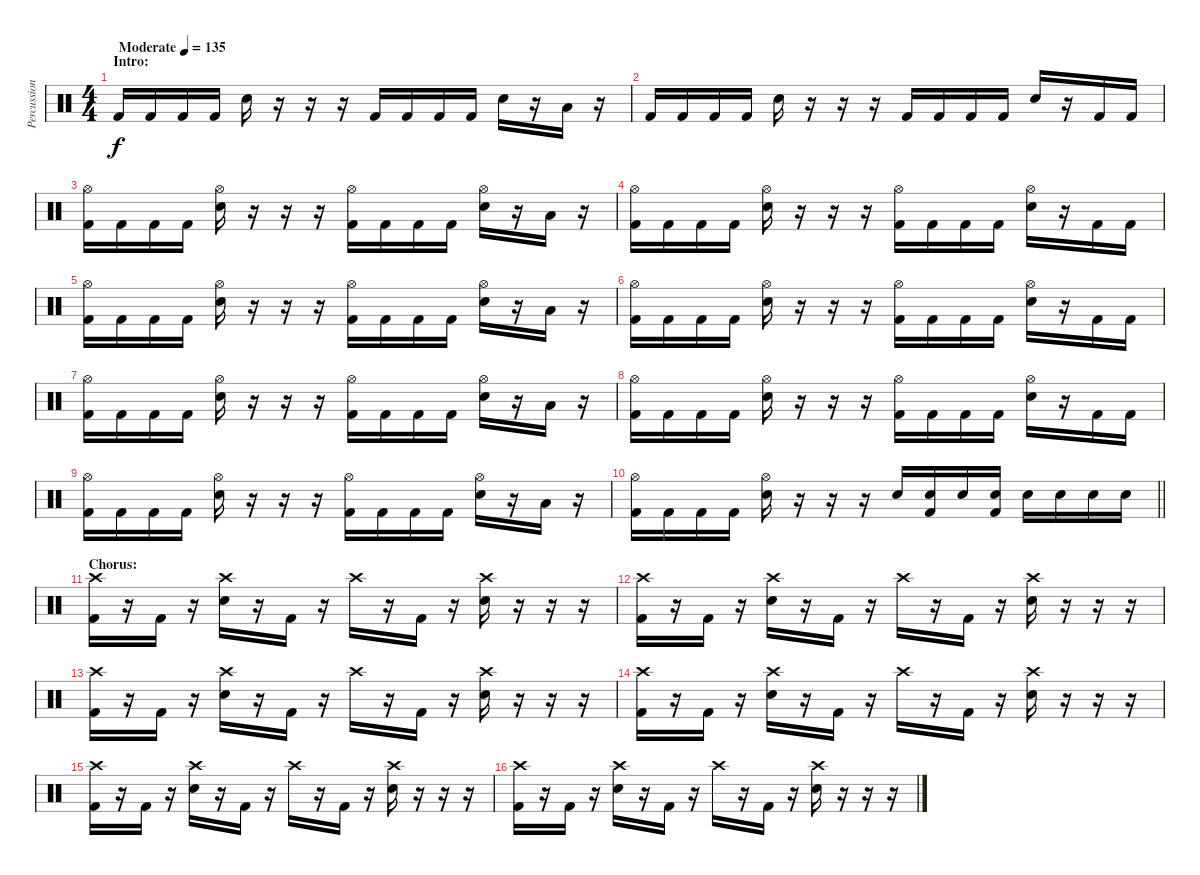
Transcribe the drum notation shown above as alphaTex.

\track ("Percussion" "Percussion") {instrument percussion}
\staff {score}
\articulation defaults
\ts (4 4)
\section ("" "Intro:")
\tempo (135 "Moderate")
\clef neutral
\ks c "Kick (hit) 2".16{dy f} "Kick (hit) 2".16 "Kick (hit) 2".16 "Kick (hit) 2".16 "Electric Snare (hit)".16
r.16 r.16 r.16 "Kick (hit) 2".16 "Kick (hit) 2".16 "Kick (hit) 2".16 "Kick (hit) 2".16 "Electric Snare (hit)".16 r.16 "Low Floor Tom (hit)".16 r.16 |
"Kick (hit) 2".16 "Kick (hit) 2".16 "Kick (hit) 2".16 "Kick (hit) 2".16 "Electric Snare (hit)".16 r.16 r.16 r.16 "Kick (hit) 2".16 "Kick (hit) 2".16 "Kick (hit) 2".16 "Kick (hit) 2".16 "Electric Snare (hit)".16 r.16 "Kick (hit) 2".16 "Kick (hit) 2".16 |
("Hi-Hat (open)" "Kick (hit) 2").16 "Kick (hit) 2".16 "Kick (hit) 2".16 "Kick (hit) 2".16 ("Hi-Hat (open)" "Electric Snare (hit)").16 r.16 r.16 r.16 ("Hi-Hat (open)" "Kick (hit) 2").16 "Kick (hit) 2".16 "Kick (hit) 2".16 "Kick (hit) 2".16 ("Hi-Hat (open)" "Electric Snare (hit)").16 r.16 "Low Floor Tom (hit)".16 r.16 |
("Hi-Hat (open)" "Kick (hit) 2").16 "Kick (hit) 2".16 "Kick (hit) 2".16 "Kick (hit) 2".16 ("Hi-Hat (open)" "Electric Snare (hit)").16 r.16 r.16 r.16 ("Hi-Hat (open)" "Kick (hit) 2").16 "Kick (hit) 2".16 "Kick (hit) 2".16 "Kick (hit) 2".16 ("Hi-Hat (open)" "Electric Snare (hit)").16 r.16 "Kick (hit) 2".16 "Kick (hit) 2".16 |
("Hi-Hat (open)" "Kick (hit) 2").16 "Kick (hit) 2".16 "Kick (hit) 2".16 "Kick (hit) 2".16 ("Hi-Hat (open)" "Electric Snare (hit)").16 r.16 r.16 r.16 ("Hi-Hat (open)" "Kick (hit) 2").16 "Kick (hit) 2".16 "Kick (hit) 2".16 "Kick (hit) 2".16 ("Hi-Hat (open)" "Electric Snare (hit)").16 r.16 "Low Floor Tom (hit)".16 r.16 |
("Hi-Hat (open)" "Kick (hit) 2").16 "Kick (hit) 2".16 "Kick (hit) 2".16 "Kick (hit) 2".16 ("Hi-Hat (open)" "Electric Snare (hit)").16 r.16 r.16 r.16 ("Hi-Hat (open)" "Kick (hit) 2").16 "Kick (hit) 2".16 "Kick (hit) 2".16 "Kick (hit) 2".16 ("Hi-Hat (open)" "Electric Snare (hit)").16 r.16 "Kick (hit) 2".16 "Kick (hit) 2".16 |
("Hi-Hat (open)" "Kick (hit) 2").16 "Kick (hit) 2".16 "Kick (hit) 2".16 "Kick (hit) 2".16 ("Hi-Hat (open)" "Electric Snare (hit)").16 r.16 r.16 r.16 ("Hi-Hat (open)" "Kick (hit) 2").16 "Kick (hit) 2".16 "Kick (hit) 2".16 "Kick (hit) 2".16 ("Hi-Hat (open)" "Electric Snare (hit)").16 r.16 "Low Floor Tom (hit)".16 r.16 |
("Hi-Hat (open)" "Kick (hit) 2").16 "Kick (hit) 2".16 "Kick (hit) 2".16 "Kick (hit) 2".16 ("Hi-Hat (open)" "Electric Snare (hit)").16 r.16 r.16 r.16 ("Hi-Hat (open)" "Kick (hit) 2").16 "Kick (hit) 2".16 "Kick (hit) 2".16 "Kick (hit) 2".16 ("Hi-Hat (open)" "Electric Snare (hit)").16 r.16 "Kick (hit) 2".16 "Kick (hit) 2".16 |
("Hi-Hat (open)" "Kick (hit) 2").16 "Kick (hit) 2".16 "Kick (hit) 2".16 "Kick (hit) 2".16 ("Hi-Hat (open)" "Electric Snare (hit)").16 r.16 r.16 r.16 ("Hi-Hat (open)" "Kick (hit) 2").16 "Kick (hit) 2".16 "Kick (hit) 2".16 "Kick (hit) 2".16 ("Hi-Hat (open)" "Electric Snare (hit)").16 r.16 "Low Floor Tom (hit)".16 r.16 |
\barLineRight lightlight
("Hi-Hat (open)" "Kick (hit) 2").16 "Kick (hit) 2".16 "Kick (hit) 2".16 "Kick (hit) 2".16 ("Hi-Hat (open)" "Electric Snare (hit)").16 r.16 r.16 r.16 "Electric Snare (hit)".16 ("Electric Snare (hit)" "Kick (hit) 2").16 "Electric Snare (hit)".16 ("Electric Snare (hit)" "Kick (hit) 2").16 "Electric Snare (hit)".16 "Electric Snare (hit)".16 "Electric Snare (hit)".16 "Electric Snare (hit)".16 |
\section ("" "Chorus:")
("Crash high (hit)" "Kick (hit) 2").16 r.16 "Kick (hit) 2".16 r.16 ("Crash high (hit)" "Electric Snare (hit)").16 r.16 "Kick (hit) 2".16 r.16 "Crash high (hit)".16 r.16 "Kick (hit) 2".16 r.16 ("Crash high (hit)" "Electric Snare (hit)").16 r.16 r.16 r.16 |
("Crash high (hit)" "Kick (hit) 2").16 r.16 "Kick (hit) 2".16 r.16 ("Crash high (hit)" "Electric Snare (hit)").16 r.16 "Kick (hit) 2".16 r.16 "Crash high (hit)".16 r.16 "Kick (hit) 2".16 r.16 ("Crash high (hit)" "Electric Snare (hit)").16 r.16 r.16 r.16 |
("Crash high (hit)" "Kick (hit) 2").16 r.16 "Kick (hit) 2".16 r.16 ("Crash high (hit)" "Electric Snare (hit)").16 r.16 "Kick (hit) 2".16 r.16 "Crash high (hit)".16 r.16 "Kick (hit) 2".16 r.16 ("Crash high (hit)" "Electric Snare (hit)").16 r.16 r.16 r.16 |
("Crash high (hit)" "Kick (hit) 2").16 r.16 "Kick (hit) 2".16 r.16 ("Crash high (hit)" "Electric Snare (hit)").16 r.16 "Kick (hit) 2".16 r.16 "Crash high (hit)".16 r.16 "Kick (hit) 2".16 r.16 ("Crash high (hit)" "Electric Snare (hit)").16 r.16 r.16 r.16 |
("Crash high (hit)" "Kick (hit) 2").16 r.16 "Kick (hit) 2".16 r.16 ("Crash high (hit)" "Electric Snare (hit)").16 r.16 "Kick (hit) 2".16 r.16 "Crash high (hit)".16 r.16 "Kick (hit) 2".16 r.16 ("Crash high (hit)" "Electric Snare (hit)").16 r.16 r.16 r.16 |
("Crash high (hit)" "Kick (hit) 2").16 r.16 "Kick (hit) 2".16 r.16 ("Crash high (hit)" "Electric Snare (hit)").16 r.16 "Kick (hit) 2".16 r.16 "Crash high (hit)".16 r.16 "Kick (hit) 2".16 r.16 ("Crash high (hit)" "Electric Snare (hit)").16 r.16 r.16 r.16
